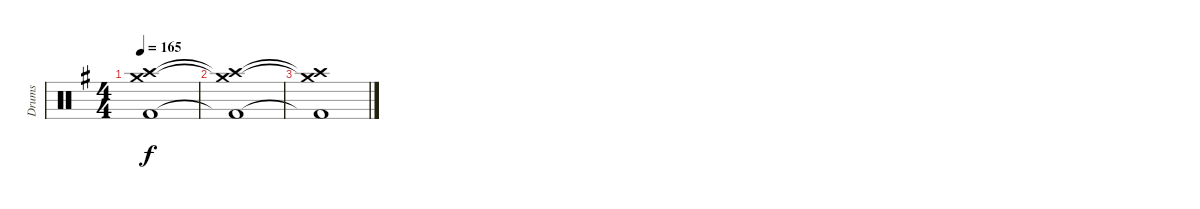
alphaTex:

\track ("Drums" "Drums") {instrument percussion}
\staff {score}
\articulation defaults
\ts (4 4)
\tempo 165
\clef neutral
\ks eminor
("Crash medium (hit)" "Crash high (hit)" "Kick (hit) 2").1{dy f} |
("Crash medium (hit)"{t} "Crash high (hit)"{t} "Kick (hit) 2"{t}).1{volume 0} |
("Crash medium (hit)"{t} "Crash high (hit)"{t} "Kick (hit) 2"{t}).1
